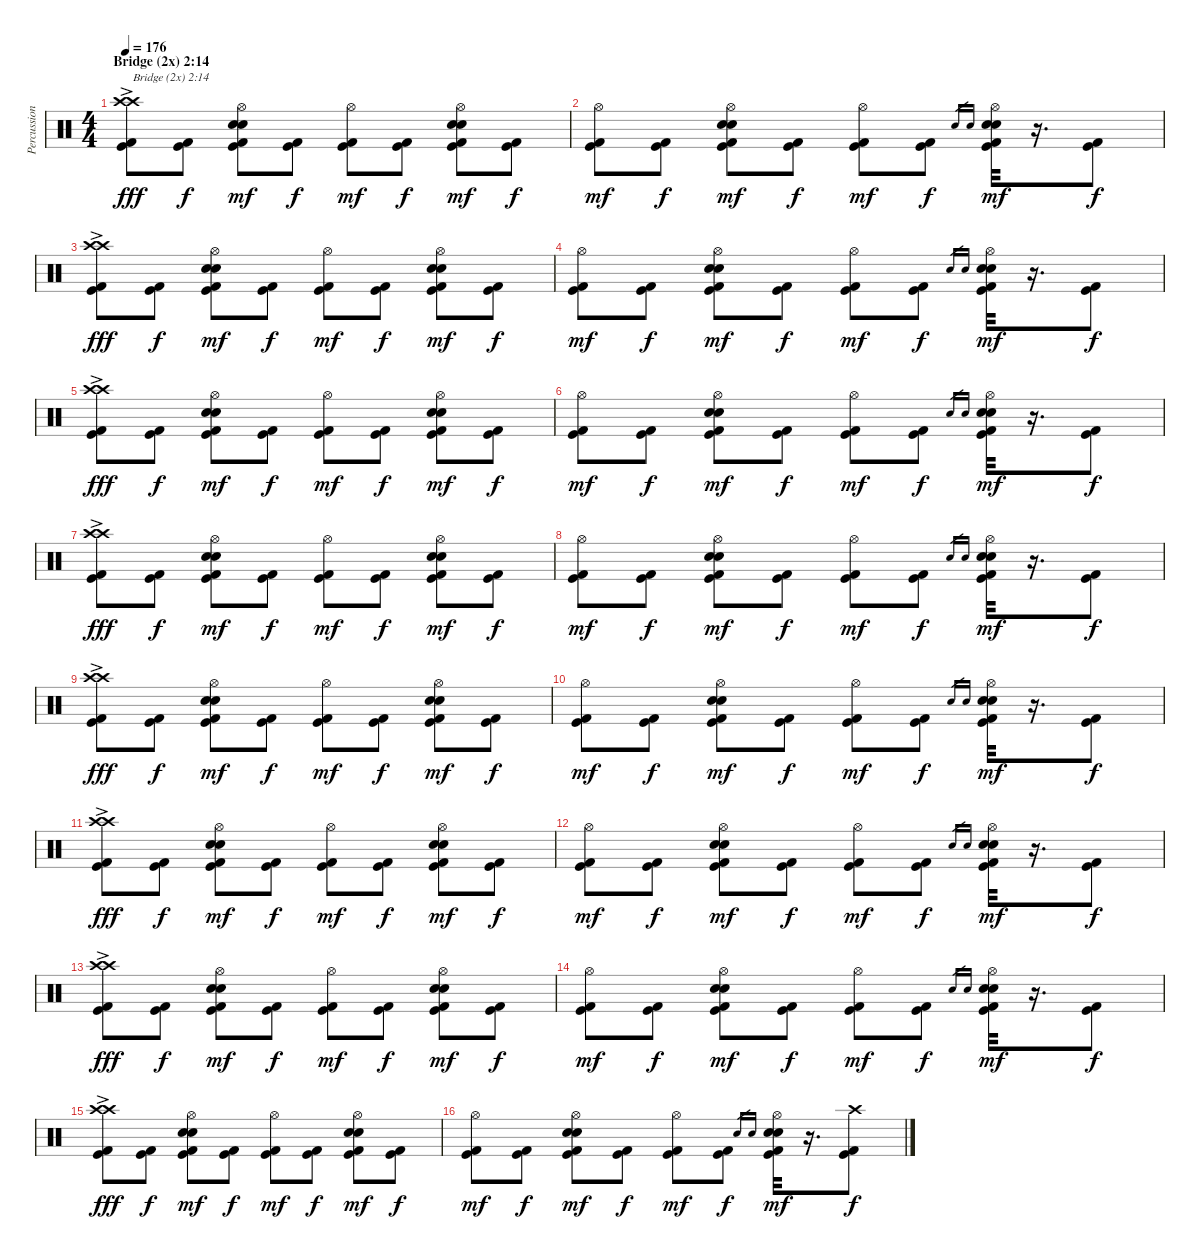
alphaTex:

\track ("Percussion" "Percussion") {instrument percussion}
\staff {score}
\articulation defaults
\ts (4 4)
\section ("" "Bridge (2x) 2:14")
\tempo 176
\clef neutral
\ks c
("Kick (hit) 2" "Kick (hit)" "Crash high (hit)"{ac} "Crash high (hit)"{ac}).8{txt "Bridge (2x) 2:14" dy fff} ("Kick (hit) 2" "Kick (hit)").8{dy f} ("Kick (hit) 2" "Kick (hit)" "Electric Snare (hit)" "Snare (hit) 2" "Hi-Hat (open)").8{dy mf} ("Kick (hit) 2" "Kick (hit)").8{dy f} ("Kick (hit) 2" "Kick (hit)" "Hi-Hat (open)").8{dy mf} ("Kick (hit) 2" "Kick (hit)").8{dy f} ("Kick (hit) 2" "Kick (hit)" "Electric Snare (hit)" "Snare (hit) 2" "Hi-Hat (open)").8{dy mf} ("Kick (hit) 2" "Kick (hit)").8{dy f} |
("Kick (hit) 2" "Kick (hit)" "Hi-Hat (open)").8{dy mf} ("Kick (hit) 2" "Kick (hit)").8{dy f} ("Kick (hit) 2" "Kick (hit)" "Electric Snare (hit)" "Snare (hit) 2" "Hi-Hat (open)").8{dy mf} ("Kick (hit) 2" "Kick (hit)").8{dy f} ("Kick (hit) 2" "Kick (hit)" "Hi-Hat (open)").8{dy mf} ("Kick (hit) 2" "Kick (hit)").8{dy f} "Electric Snare (hit)".16{gr} "Snare (hit) 2".16{gr} ("Kick (hit) 2" "Kick (hit)" "Electric Snare (hit)" "Snare (hit) 2" "Hi-Hat (open)").32{dy mf} r.16{d} ("Kick (hit) 2" "Kick (hit)").8{dy f} |
("Kick (hit) 2" "Kick (hit)" "Crash high (hit)"{ac} "Crash high (hit)"{ac}).8{dy fff} ("Kick (hit) 2" "Kick (hit)").8{dy f} ("Kick (hit) 2" "Kick (hit)" "Electric Snare (hit)" "Snare (hit) 2" "Hi-Hat (open)").8{dy mf} ("Kick (hit) 2" "Kick (hit)").8{dy f} ("Kick (hit) 2" "Kick (hit)" "Hi-Hat (open)").8{dy mf} ("Kick (hit) 2" "Kick (hit)").8{dy f} ("Kick (hit) 2" "Kick (hit)" "Electric Snare (hit)" "Snare (hit) 2" "Hi-Hat (open)").8{dy mf} ("Kick (hit) 2" "Kick (hit)").8{dy f} |
("Kick (hit) 2" "Kick (hit)" "Hi-Hat (open)").8{dy mf} ("Kick (hit) 2" "Kick (hit)").8{dy f} ("Kick (hit) 2" "Kick (hit)" "Electric Snare (hit)" "Snare (hit) 2" "Hi-Hat (open)").8{dy mf} ("Kick (hit) 2" "Kick (hit)").8{dy f} ("Kick (hit) 2" "Kick (hit)" "Hi-Hat (open)").8{dy mf} ("Kick (hit) 2" "Kick (hit)").8{dy f} "Electric Snare (hit)".16{gr} "Snare (hit) 2".16{gr} ("Kick (hit) 2" "Kick (hit)" "Electric Snare (hit)" "Snare (hit) 2" "Hi-Hat (open)").32{dy mf} r.16{d} ("Kick (hit) 2" "Kick (hit)").8{dy f} |
("Kick (hit) 2" "Kick (hit)" "Crash high (hit)"{ac} "Crash high (hit)"{ac}).8{dy fff} ("Kick (hit) 2" "Kick (hit)").8{dy f} ("Kick (hit) 2" "Kick (hit)" "Electric Snare (hit)" "Snare (hit) 2" "Hi-Hat (open)").8{dy mf} ("Kick (hit) 2" "Kick (hit)").8{dy f} ("Kick (hit) 2" "Kick (hit)" "Hi-Hat (open)").8{dy mf} ("Kick (hit) 2" "Kick (hit)").8{dy f} ("Kick (hit) 2" "Kick (hit)" "Electric Snare (hit)" "Snare (hit) 2" "Hi-Hat (open)").8{dy mf} ("Kick (hit) 2" "Kick (hit)").8{dy f} |
("Kick (hit) 2" "Kick (hit)" "Hi-Hat (open)").8{dy mf} ("Kick (hit) 2" "Kick (hit)").8{dy f} ("Kick (hit) 2" "Kick (hit)" "Electric Snare (hit)" "Snare (hit) 2" "Hi-Hat (open)").8{dy mf} ("Kick (hit) 2" "Kick (hit)").8{dy f} ("Kick (hit) 2" "Kick (hit)" "Hi-Hat (open)").8{dy mf} ("Kick (hit) 2" "Kick (hit)").8{dy f} "Electric Snare (hit)".16{gr} "Snare (hit) 2".16{gr} ("Kick (hit) 2" "Kick (hit)" "Electric Snare (hit)" "Snare (hit) 2" "Hi-Hat (open)").32{dy mf} r.16{d} ("Kick (hit) 2" "Kick (hit)").8{dy f} |
("Kick (hit) 2" "Kick (hit)" "Crash high (hit)"{ac} "Crash high (hit)"{ac}).8{dy fff} ("Kick (hit) 2" "Kick (hit)").8{dy f} ("Kick (hit) 2" "Kick (hit)" "Electric Snare (hit)" "Snare (hit) 2" "Hi-Hat (open)").8{dy mf} ("Kick (hit) 2" "Kick (hit)").8{dy f} ("Kick (hit) 2" "Kick (hit)" "Hi-Hat (open)").8{dy mf} ("Kick (hit) 2" "Kick (hit)").8{dy f} ("Kick (hit) 2" "Kick (hit)" "Electric Snare (hit)" "Snare (hit) 2" "Hi-Hat (open)").8{dy mf} ("Kick (hit) 2" "Kick (hit)").8{dy f} |
("Kick (hit) 2" "Kick (hit)" "Hi-Hat (open)").8{dy mf} ("Kick (hit) 2" "Kick (hit)").8{dy f} ("Kick (hit) 2" "Kick (hit)" "Electric Snare (hit)" "Snare (hit) 2" "Hi-Hat (open)").8{dy mf} ("Kick (hit) 2" "Kick (hit)").8{dy f} ("Kick (hit) 2" "Kick (hit)" "Hi-Hat (open)").8{dy mf} ("Kick (hit) 2" "Kick (hit)").8{dy f} "Electric Snare (hit)".16{gr} "Snare (hit) 2".16{gr} ("Kick (hit) 2" "Kick (hit)" "Electric Snare (hit)" "Snare (hit) 2" "Hi-Hat (open)").32{dy mf} r.16{d} ("Kick (hit) 2" "Kick (hit)").8{dy f} |
("Kick (hit) 2" "Kick (hit)" "Crash high (hit)"{ac} "Crash high (hit)"{ac}).8{dy fff} ("Kick (hit) 2" "Kick (hit)").8{dy f} ("Kick (hit) 2" "Kick (hit)" "Electric Snare (hit)" "Snare (hit) 2" "Hi-Hat (open)").8{dy mf} ("Kick (hit) 2" "Kick (hit)").8{dy f} ("Kick (hit) 2" "Kick (hit)" "Hi-Hat (open)").8{dy mf} ("Kick (hit) 2" "Kick (hit)").8{dy f} ("Kick (hit) 2" "Kick (hit)" "Electric Snare (hit)" "Snare (hit) 2" "Hi-Hat (open)").8{dy mf} ("Kick (hit) 2" "Kick (hit)").8{dy f} |
("Kick (hit) 2" "Kick (hit)" "Hi-Hat (open)").8{dy mf} ("Kick (hit) 2" "Kick (hit)").8{dy f} ("Kick (hit) 2" "Kick (hit)" "Electric Snare (hit)" "Snare (hit) 2" "Hi-Hat (open)").8{dy mf} ("Kick (hit) 2" "Kick (hit)").8{dy f} ("Kick (hit) 2" "Kick (hit)" "Hi-Hat (open)").8{dy mf} ("Kick (hit) 2" "Kick (hit)").8{dy f} "Electric Snare (hit)".16{gr} "Snare (hit) 2".16{gr} ("Kick (hit) 2" "Kick (hit)" "Electric Snare (hit)" "Snare (hit) 2" "Hi-Hat (open)").32{dy mf} r.16{d} ("Kick (hit) 2" "Kick (hit)").8{dy f} |
("Kick (hit) 2" "Kick (hit)" "Crash high (hit)"{ac} "Crash high (hit)"{ac}).8{dy fff} ("Kick (hit) 2" "Kick (hit)").8{dy f} ("Kick (hit) 2" "Kick (hit)" "Electric Snare (hit)" "Snare (hit) 2" "Hi-Hat (open)").8{dy mf} ("Kick (hit) 2" "Kick (hit)").8{dy f} ("Kick (hit) 2" "Kick (hit)" "Hi-Hat (open)").8{dy mf} ("Kick (hit) 2" "Kick (hit)").8{dy f} ("Kick (hit) 2" "Kick (hit)" "Electric Snare (hit)" "Snare (hit) 2" "Hi-Hat (open)").8{dy mf} ("Kick (hit) 2" "Kick (hit)").8{dy f} |
("Kick (hit) 2" "Kick (hit)" "Hi-Hat (open)").8{dy mf} ("Kick (hit) 2" "Kick (hit)").8{dy f} ("Kick (hit) 2" "Kick (hit)" "Electric Snare (hit)" "Snare (hit) 2" "Hi-Hat (open)").8{dy mf} ("Kick (hit) 2" "Kick (hit)").8{dy f} ("Kick (hit) 2" "Kick (hit)" "Hi-Hat (open)").8{dy mf} ("Kick (hit) 2" "Kick (hit)").8{dy f} "Electric Snare (hit)".16{gr} "Snare (hit) 2".16{gr} ("Kick (hit) 2" "Kick (hit)" "Electric Snare (hit)" "Snare (hit) 2" "Hi-Hat (open)").32{dy mf} r.16{d} ("Kick (hit) 2" "Kick (hit)").8{dy f} |
("Kick (hit) 2" "Kick (hit)" "Crash high (hit)"{ac} "Crash high (hit)"{ac}).8{dy fff} ("Kick (hit) 2" "Kick (hit)").8{dy f} ("Kick (hit) 2" "Kick (hit)" "Electric Snare (hit)" "Snare (hit) 2" "Hi-Hat (open)").8{dy mf} ("Kick (hit) 2" "Kick (hit)").8{dy f} ("Kick (hit) 2" "Kick (hit)" "Hi-Hat (open)").8{dy mf} ("Kick (hit) 2" "Kick (hit)").8{dy f} ("Kick (hit) 2" "Kick (hit)" "Electric Snare (hit)" "Snare (hit) 2" "Hi-Hat (open)").8{dy mf} ("Kick (hit) 2" "Kick (hit)").8{dy f} |
("Kick (hit) 2" "Kick (hit)" "Hi-Hat (open)").8{dy mf} ("Kick (hit) 2" "Kick (hit)").8{dy f} ("Kick (hit) 2" "Kick (hit)" "Electric Snare (hit)" "Snare (hit) 2" "Hi-Hat (open)").8{dy mf} ("Kick (hit) 2" "Kick (hit)").8{dy f} ("Kick (hit) 2" "Kick (hit)" "Hi-Hat (open)").8{dy mf} ("Kick (hit) 2" "Kick (hit)").8{dy f} "Electric Snare (hit)".16{gr} "Snare (hit) 2".16{gr} ("Kick (hit) 2" "Kick (hit)" "Electric Snare (hit)" "Snare (hit) 2" "Hi-Hat (open)").32{dy mf} r.16{d} ("Kick (hit) 2" "Kick (hit)").8{dy f} |
("Kick (hit) 2" "Kick (hit)" "Crash high (hit)"{ac} "Crash high (hit)"{ac}).8{dy fff} ("Kick (hit) 2" "Kick (hit)").8{dy f} ("Kick (hit) 2" "Kick (hit)" "Electric Snare (hit)" "Snare (hit) 2" "Hi-Hat (open)").8{dy mf} ("Kick (hit) 2" "Kick (hit)").8{dy f} ("Kick (hit) 2" "Kick (hit)" "Hi-Hat (open)").8{dy mf} ("Kick (hit) 2" "Kick (hit)").8{dy f} ("Kick (hit) 2" "Kick (hit)" "Electric Snare (hit)" "Snare (hit) 2" "Hi-Hat (open)").8{dy mf} ("Kick (hit) 2" "Kick (hit)").8{dy f} |
("Kick (hit) 2" "Kick (hit)" "Hi-Hat (open)").8{dy mf} ("Kick (hit) 2" "Kick (hit)").8{dy f} ("Kick (hit) 2" "Kick (hit)" "Electric Snare (hit)" "Snare (hit) 2" "Hi-Hat (open)").8{dy mf} ("Kick (hit) 2" "Kick (hit)").8{dy f} ("Kick (hit) 2" "Kick (hit)" "Hi-Hat (open)").8{dy mf} ("Kick (hit) 2" "Kick (hit)").8{dy f} "Electric Snare (hit)".16{gr} "Snare (hit) 2".16{gr} ("Kick (hit) 2" "Kick (hit)" "Electric Snare (hit)" "Snare (hit) 2" "Hi-Hat (open)").32{dy mf} r.16{d} ("Kick (hit) 2" "Kick (hit)" "Crash high (hit)").8{dy f}
